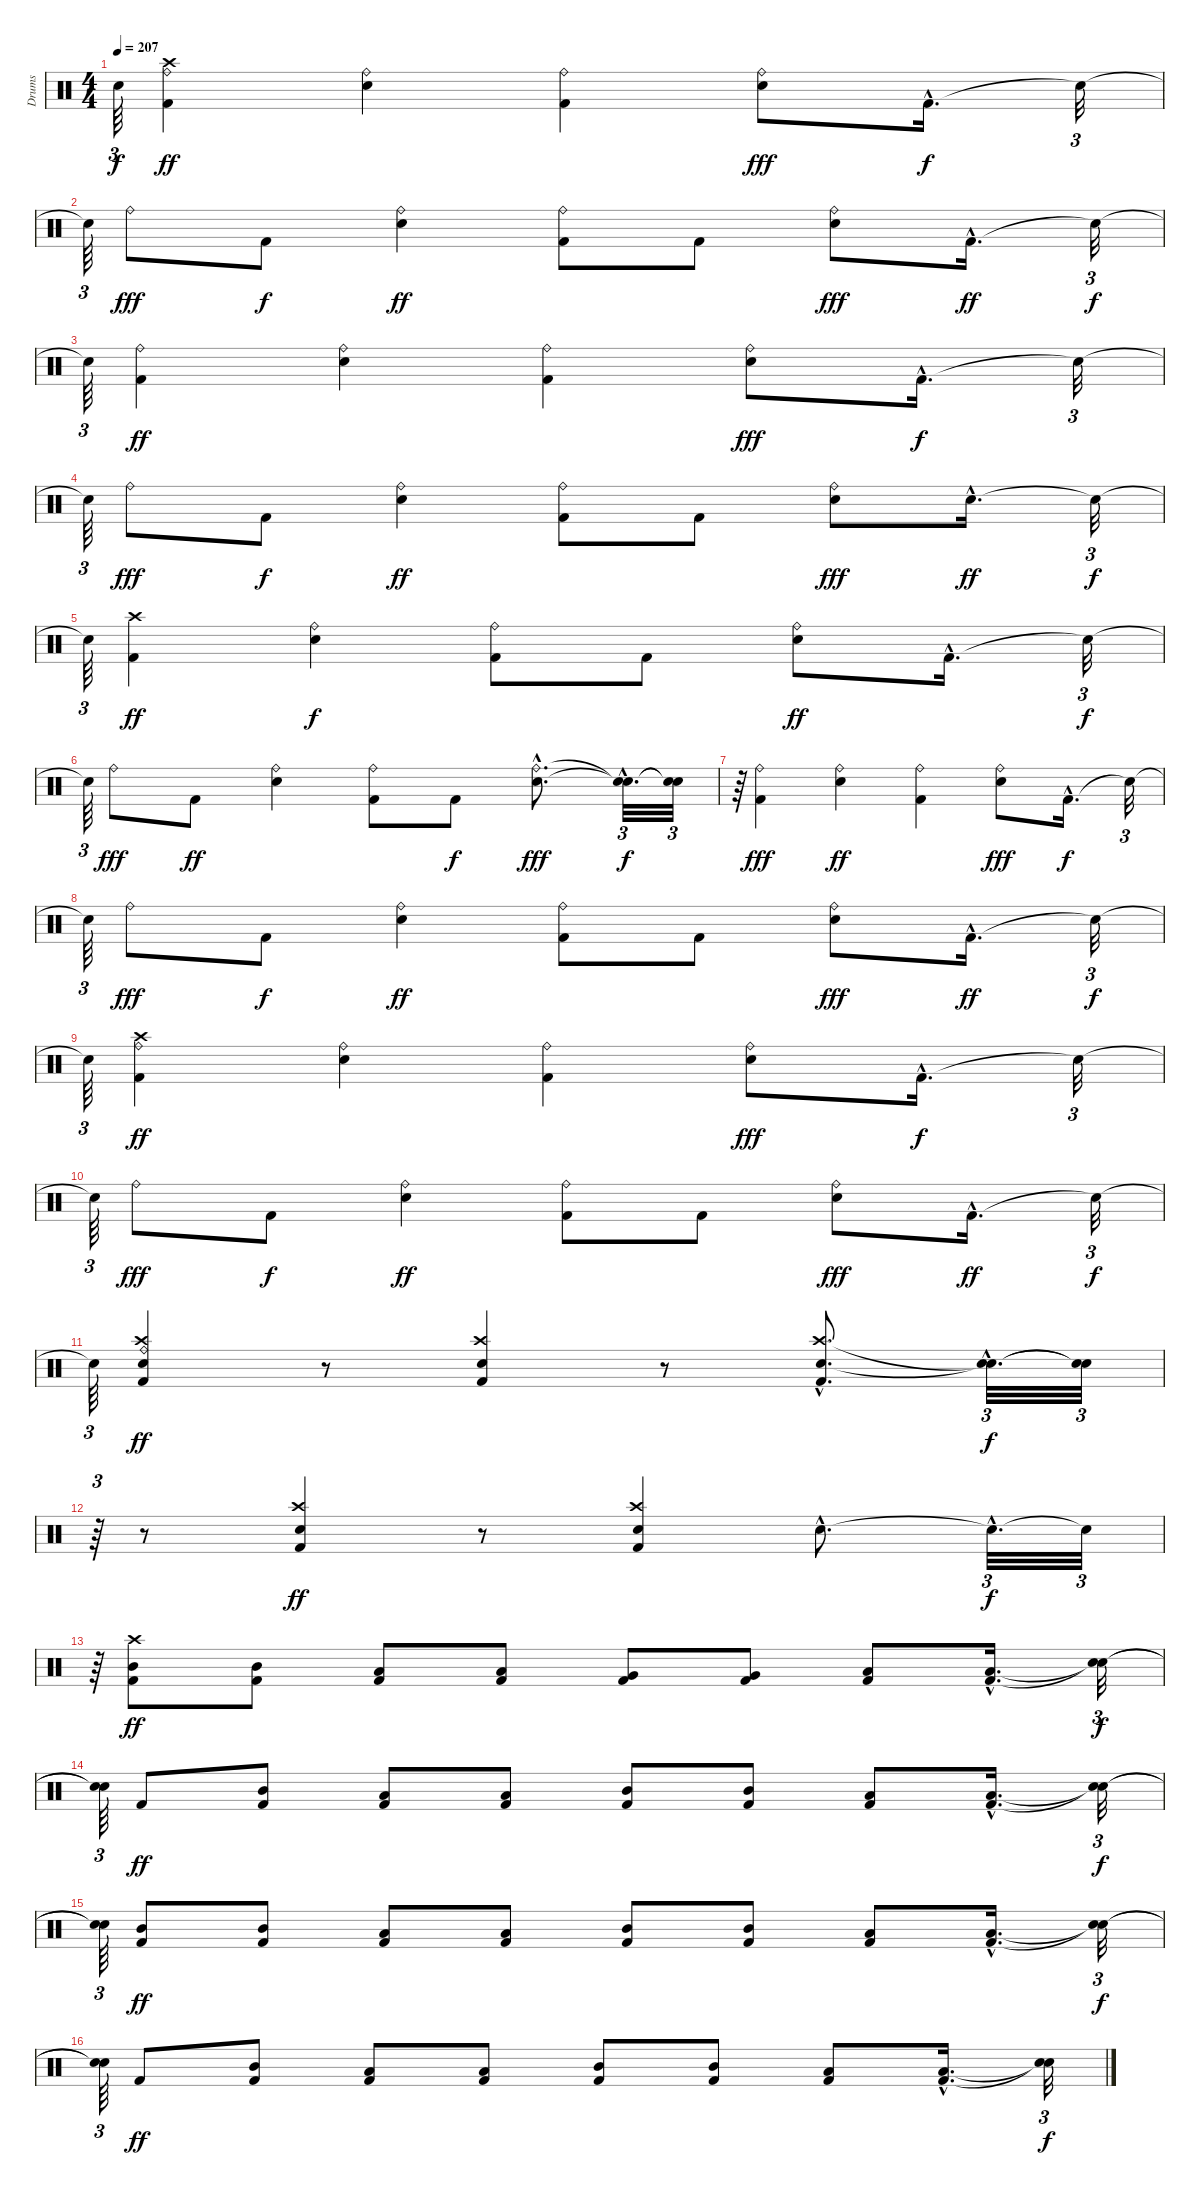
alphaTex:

\track ("Drums" "Drums") {instrument percussion}
\staff {score}
\articulation defaults
\ts (4 4)
\tempo 207
\clef neutral
\ks c "Snare (hit)"{t}.64{tu (3 2) dy f}
("Crash high (hit)" "Ride (bell)" "Kick (hit) 2").4{dy ff} ("Snare (hit) 2" "Ride (bell)").4 ("Kick (hit) 2" "Ride (bell)").4 ("Snare (hit) 2" "Ride (bell)").8{dy fff} "Kick (hit) 2"{hac}.16{d dy f} "Snare (hit)"{t}.32{tu (3 2)} |
"Snare (hit)"{t}.64{tu (3 2)} "Ride (bell)".8{dy fff} "Kick (hit) 2".8{dy f} ("Snare (hit) 2" "Ride (bell)").4{dy ff} ("Kick (hit) 2" "Ride (bell)").8 "Kick (hit) 2".8 ("Snare (hit) 2" "Ride (bell)").8{dy fff} "Kick (hit) 2"{hac}.16{d dy ff} "Snare (hit)"{t}.32{tu (3 2) dy f} |
"Snare (hit)"{t}.64{tu (3 2)} ("Ride (bell)" "Kick (hit) 2").4{dy ff} ("Snare (hit) 2" "Ride (bell)").4 ("Kick (hit) 2" "Ride (bell)").4 ("Snare (hit) 2" "Ride (bell)").8{dy fff} "Kick (hit) 2"{hac}.16{d dy f} "Snare (hit)"{t}.32{tu (3 2)} |
"Snare (hit)"{t}.64{tu (3 2)} "Ride (bell)".8{dy fff} "Kick (hit) 2".8{dy f} ("Snare (hit) 2" "Ride (bell)").4{dy ff} ("Kick (hit) 2" "Ride (bell)").8 "Kick (hit) 2".8 ("Snare (hit) 2" "Ride (bell)").8{dy fff} "Snare (hit) 2"{hac}.16{d dy ff} "Snare (hit)"{t}.32{tu (3 2) dy f} |
"Snare (hit)"{t}.64{tu (3 2)} ("Crash high (hit)" "Kick (hit) 2").4{dy ff} ("Ride (bell)" "Snare (hit) 2").4{dy f} ("Kick (hit) 2" "Ride (bell)").8 "Kick (hit) 2".8 ("Snare (hit) 2" "Ride (bell)").8{dy ff} "Kick (hit) 2"{hac}.16{d} "Snare (hit)"{t}.32{tu (3 2) dy f} |
"Snare (hit)"{t}.64{tu (3 2)} "Ride (bell)".8{dy fff} "Kick (hit) 2".8{dy ff} ("Snare (hit) 2" "Ride (bell)").4 ("Kick (hit) 2" "Ride (bell)").8 "Kick (hit) 2".8{dy f} ("Snare (hit) 2"{hac} "Ride (bell)"{hac}).8{d dy fff} ("Snare (hit)"{hac t} "Snare (hit)"{hac t}).32{d tu (3 2) dy f} ("Snare (hit)"{t} "Snare (hit)"{t}).32{tu (3 2)} |
r.64{tu (3 2)} ("Kick (hit) 2" "Ride (bell)").4{dy fff} ("Snare (hit) 2" "Ride (bell)").4{dy ff} ("Kick (hit) 2" "Ride (bell)").4 ("Snare (hit) 2" "Ride (bell)").8{dy fff} "Kick (hit) 2"{hac}.16{d dy f} "Snare (hit)"{t}.32{tu (3 2)} |
"Snare (hit)"{t}.64{tu (3 2)} "Ride (bell)".8{dy fff} "Kick (hit) 2".8{dy f} ("Snare (hit) 2" "Ride (bell)").4{dy ff} ("Kick (hit) 2" "Ride (bell)").8 "Kick (hit) 2".8 ("Snare (hit) 2" "Ride (bell)").8{dy fff} "Kick (hit) 2"{hac}.16{d dy ff} "Snare (hit)"{t}.32{tu (3 2) dy f} |
"Snare (hit)"{t}.64{tu (3 2)} ("Crash high (hit)" "Ride (bell)" "Kick (hit) 2").4{dy ff} ("Snare (hit) 2" "Ride (bell)").4 ("Kick (hit) 2" "Ride (bell)").4 ("Snare (hit) 2" "Ride (bell)").8{dy fff} "Kick (hit) 2"{hac}.16{d dy f} "Snare (hit)"{t}.32{tu (3 2)} |
"Snare (hit)"{t}.64{tu (3 2)} "Ride (bell)".8{dy fff} "Kick (hit) 2".8{dy f} ("Snare (hit) 2" "Ride (bell)").4{dy ff} ("Kick (hit) 2" "Ride (bell)").8 "Kick (hit) 2".8 ("Snare (hit) 2" "Ride (bell)").8{dy fff} "Kick (hit) 2"{hac}.16{d dy ff} "Snare (hit)"{t}.32{tu (3 2) dy f} |
"Snare (hit)"{t}.64{tu (3 2)} ("Crash high (hit)" "Snare (hit) 2" "Ride (bell)" "Kick (hit) 2").4{dy ff} r.8 ("Crash high (hit)" "Snare (hit) 2" "Kick (hit) 2").4 r.8 ("Crash high (hit)"{hac} "Snare (hit) 2"{hac} "Kick (hit) 2").8{d} ("Snare (hit)"{hac t} "Snare (hit)"{hac t}).32{d tu (3 2) dy f} ("Snare (hit)"{t} "Snare (hit)"{t}).32{tu (3 2)} |
r.64{tu (3 2)} r.8 ("Crash high (hit)" "Kick (hit) 2" "Snare (hit) 2").4{dy ff} r.8 ("Crash high (hit)" "Kick (hit) 2" "Snare (hit) 2").4 "Snare (hit) 2"{hac}.8{d} "Snare (hit)"{hac t}.32{d tu (3 2) dy f} "Snare (hit)"{t}.32{tu (3 2)} |
r.64{tu (3 2)} ("Mid Tom (hit)" "Crash high (hit)" "Kick (hit) 2").8{dy ff} ("Mid Tom (hit)" "Kick (hit) 2").8 ("Low Tom (hit)" "Kick (hit) 2").8 ("Low Tom (hit)" "Kick (hit) 2").8 ("Very Low Tom (hit)" "Kick (hit) 2").8 ("Very Low Tom (hit)" "Kick (hit) 2").8 ("Low Floor Tom (hit)" "Kick (hit) 2").8 ("Low Floor Tom (hit)"{hac} "Kick (hit) 2"{hac}).16{d} ("Snare (hit)"{t} "Snare (hit)"{t}).32{tu (3 2) dy f} |
("Snare (hit)"{t} "Snare (hit)"{t}).64{tu (3 2)} "Kick (hit) 2".8{dy ff} ("Mid Tom (hit)" "Kick (hit) 2").8 ("Low Floor Tom (hit)" "Kick (hit) 2").8 ("Low Floor Tom (hit)" "Kick (hit) 2").8 ("Mid Tom (hit)" "Kick (hit) 2").8 ("Mid Tom (hit)" "Kick (hit) 2").8 ("Low Floor Tom (hit)" "Kick (hit) 2").8 ("Low Floor Tom (hit)"{hac} "Kick (hit) 2"{hac}).16{d} ("Snare (hit)"{t} "Snare (hit)"{t}).32{tu (3 2) dy f} |
("Snare (hit)"{t} "Snare (hit)"{t}).64{tu (3 2)} ("Mid Tom (hit)" "Kick (hit) 2").8{dy ff} ("Mid Tom (hit)" "Kick (hit) 2").8 ("Low Floor Tom (hit)" "Kick (hit) 2").8 ("Low Floor Tom (hit)" "Kick (hit) 2").8 ("Mid Tom (hit)" "Kick (hit) 2").8 ("Mid Tom (hit)" "Kick (hit) 2").8 ("Kick (hit) 2" "Low Floor Tom (hit)").8 ("Low Floor Tom (hit)"{hac} "Kick (hit) 2"{hac}).16{d} ("Snare (hit)"{t} "Snare (hit)"{t}).32{tu (3 2) dy f} |
("Snare (hit)"{t} "Snare (hit)"{t}).64{tu (3 2)} "Kick (hit) 2".8{dy ff} ("Mid Tom (hit)" "Kick (hit) 2").8 ("Low Floor Tom (hit)" "Kick (hit) 2").8 ("Low Floor Tom (hit)" "Kick (hit) 2").8 ("Mid Tom (hit)" "Kick (hit) 2").8 ("Mid Tom (hit)" "Kick (hit) 2").8 ("Low Floor Tom (hit)" "Kick (hit) 2").8 ("Low Floor Tom (hit)"{hac} "Kick (hit) 2"{hac}).16{d} ("Snare (hit)"{t} "Snare (hit)"{t}).32{tu (3 2) dy f}
